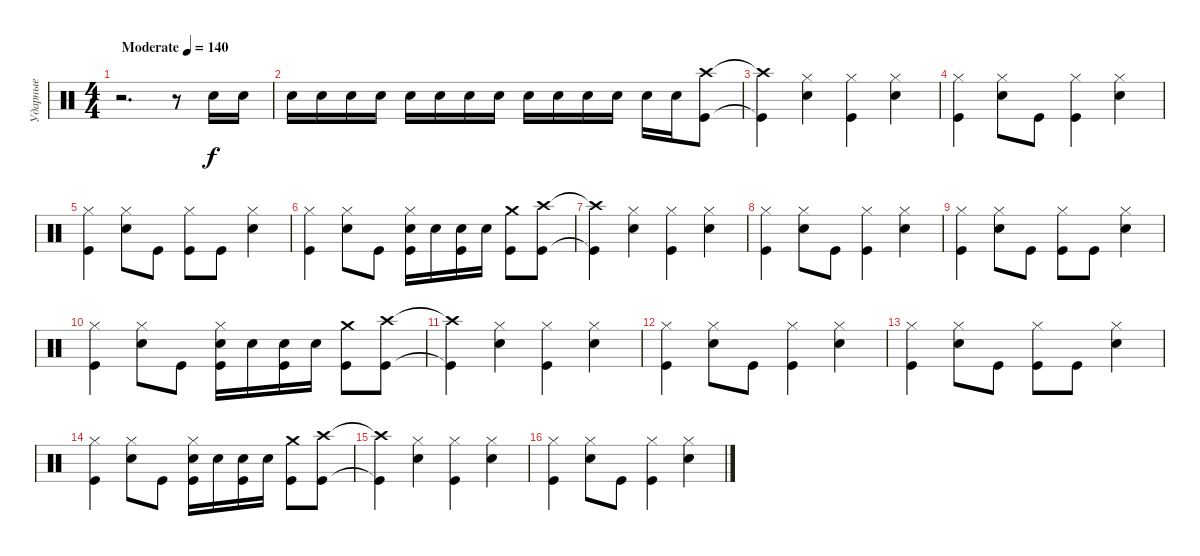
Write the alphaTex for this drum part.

\track ("Ударные" "Ударные") {instrument percussion}
\staff {score}
\articulation defaults
\ts (4 4)
\tempo (140 "Moderate")
\clef neutral
\ks c
r.2{d dy f} r.8 "Snare (hit) 2".16 "Snare (hit) 2".16 |
"Snare (hit) 2".16 "Snare (hit) 2".16 "Snare (hit) 2".16 "Snare (hit) 2".16 "Snare (hit) 2".16 "Snare (hit) 2".16 "Snare (hit) 2".16 "Snare (hit) 2".16 "Snare (hit) 2".16 "Snare (hit) 2".16 "Snare (hit) 2".16 "Snare (hit) 2".16 "Snare (hit) 2".16 "Snare (hit) 2".16 ("Crash high (hit)" "Kick (hit)").8 |
("Crash high (hit)"{t} "Kick (hit)"{t}).4 ("Hi-Hat (closed)" "Snare (hit) 2").4 ("Hi-Hat (closed)" "Kick (hit)").4 ("Hi-Hat (closed)" "Snare (hit) 2").4 |
("Hi-Hat (closed)" "Kick (hit)").4 ("Hi-Hat (closed)" "Snare (hit) 2").8 "Kick (hit)".8 ("Hi-Hat (closed)" "Kick (hit)").4 ("Hi-Hat (closed)" "Snare (hit) 2").4 |
("Hi-Hat (closed)" "Kick (hit)").4 ("Hi-Hat (closed)" "Snare (hit) 2").8 "Kick (hit)".8 ("Hi-Hat (closed)" "Kick (hit)").8 "Kick (hit)".8 ("Hi-Hat (closed)" "Snare (hit) 2").4 |
("Hi-Hat (closed)" "Kick (hit)").4 ("Hi-Hat (closed)" "Snare (hit) 2").8 "Kick (hit)".8 ("Hi-Hat (closed)" "Snare (hit) 2" "Kick (hit)").16 "Snare (hit) 2".16 ("Snare (hit) 2" "Kick (hit)").16 "Snare (hit) 2".16 ("Crash medium (hit)" "Kick (hit)").8 ("Crash high (hit)" "Kick (hit)").8 |
("Crash high (hit)"{t} "Kick (hit)"{t}).4 ("Hi-Hat (closed)" "Snare (hit) 2").4 ("Hi-Hat (closed)" "Kick (hit)").4 ("Hi-Hat (closed)" "Snare (hit) 2").4 |
("Hi-Hat (closed)" "Kick (hit)").4 ("Hi-Hat (closed)" "Snare (hit) 2").8 "Kick (hit)".8 ("Hi-Hat (closed)" "Kick (hit)").4 ("Hi-Hat (closed)" "Snare (hit) 2").4 |
("Hi-Hat (closed)" "Kick (hit)").4 ("Hi-Hat (closed)" "Snare (hit) 2").8 "Kick (hit)".8 ("Hi-Hat (closed)" "Kick (hit)").8 "Kick (hit)".8 ("Hi-Hat (closed)" "Snare (hit) 2").4 |
("Hi-Hat (closed)" "Kick (hit)").4 ("Hi-Hat (closed)" "Snare (hit) 2").8 "Kick (hit)".8 ("Hi-Hat (closed)" "Snare (hit) 2" "Kick (hit)").16 "Snare (hit) 2".16 ("Snare (hit) 2" "Kick (hit)").16 "Snare (hit) 2".16 ("Crash medium (hit)" "Kick (hit)").8 ("Crash high (hit)" "Kick (hit)").8 |
("Crash high (hit)"{t} "Kick (hit)"{t}).4 ("Hi-Hat (closed)" "Snare (hit) 2").4 ("Hi-Hat (closed)" "Kick (hit)").4 ("Hi-Hat (closed)" "Snare (hit) 2").4 |
("Hi-Hat (closed)" "Kick (hit)").4 ("Hi-Hat (closed)" "Snare (hit) 2").8 "Kick (hit)".8 ("Hi-Hat (closed)" "Kick (hit)").4 ("Hi-Hat (closed)" "Snare (hit) 2").4 |
("Hi-Hat (closed)" "Kick (hit)").4 ("Hi-Hat (closed)" "Snare (hit) 2").8 "Kick (hit)".8 ("Hi-Hat (closed)" "Kick (hit)").8 "Kick (hit)".8 ("Hi-Hat (closed)" "Snare (hit) 2").4 |
("Hi-Hat (closed)" "Kick (hit)").4 ("Hi-Hat (closed)" "Snare (hit) 2").8 "Kick (hit)".8 ("Hi-Hat (closed)" "Snare (hit) 2" "Kick (hit)").16 "Snare (hit) 2".16 ("Snare (hit) 2" "Kick (hit)").16 "Snare (hit) 2".16 ("Crash medium (hit)" "Kick (hit)").8 ("Crash high (hit)" "Kick (hit)").8 |
("Crash high (hit)"{t} "Kick (hit)"{t}).4 ("Hi-Hat (closed)" "Snare (hit) 2").4 ("Hi-Hat (closed)" "Kick (hit)").4 ("Hi-Hat (closed)" "Snare (hit) 2").4 |
("Hi-Hat (closed)" "Kick (hit)").4 ("Hi-Hat (closed)" "Snare (hit) 2").8 "Kick (hit)".8 ("Hi-Hat (closed)" "Kick (hit)").4 ("Hi-Hat (closed)" "Snare (hit) 2").4
